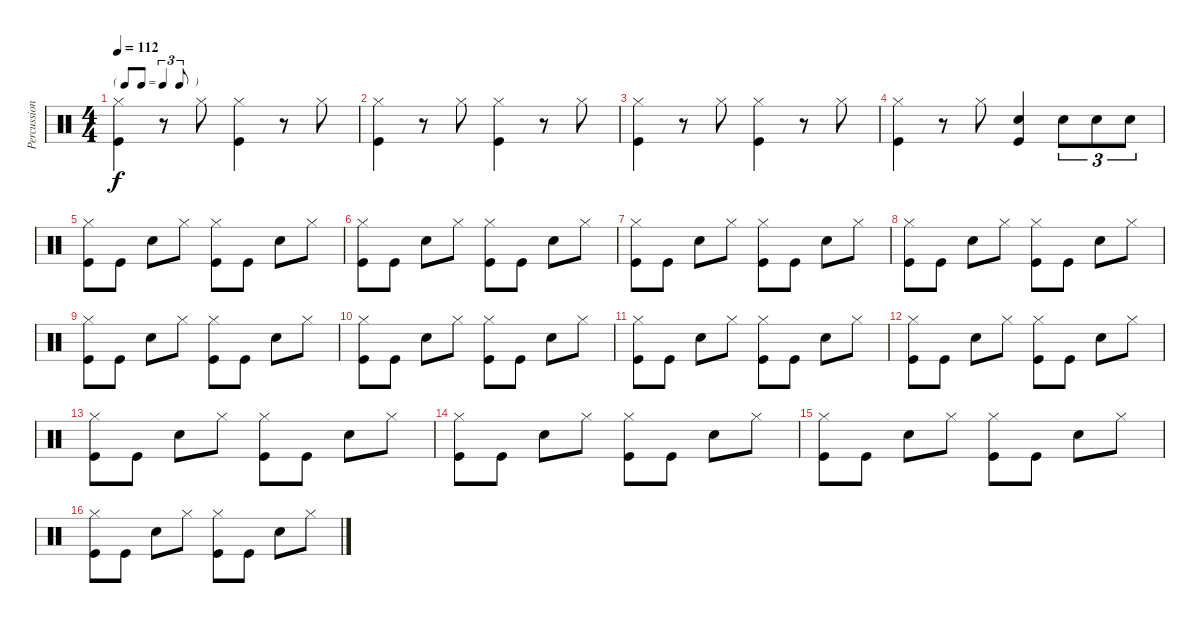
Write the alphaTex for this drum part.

\track ("Percussion" "Percussion") {instrument percussion}
\staff {score}
\articulation defaults
\ts (4 4)
\tf triplet8th
\tempo 112
\clef neutral
\ks c
("Hi-Hat (closed)" "Kick (hit)").4{dy f} r.8 "Hi-Hat (closed)".8 ("Hi-Hat (closed)" "Kick (hit)").4 r.8 "Hi-Hat (closed)".8 |
("Hi-Hat (closed)" "Kick (hit)").4 r.8 "Hi-Hat (closed)".8 ("Hi-Hat (closed)" "Kick (hit)").4 r.8 "Hi-Hat (closed)".8 |
("Hi-Hat (closed)" "Kick (hit)").4 r.8 "Hi-Hat (closed)".8 ("Hi-Hat (closed)" "Kick (hit)").4 r.8 "Hi-Hat (closed)".8 |
("Hi-Hat (closed)" "Kick (hit)").4 r.8 "Hi-Hat (closed)".8 ("Snare (hit) 2" "Kick (hit)").4 "Snare (hit) 2".8{tu (3 2)} "Snare (hit) 2".8{tu (3 2)} "Snare (hit) 2".8{tu (3 2)} |
("Hi-Hat (closed)" "Kick (hit)").8 "Kick (hit)".8 "Snare (hit) 2".8 "Hi-Hat (closed)".8 ("Hi-Hat (closed)" "Kick (hit)").8 "Kick (hit)".8 "Snare (hit) 2".8 "Hi-Hat (closed)".8 |
("Hi-Hat (closed)" "Kick (hit)").8 "Kick (hit)".8 "Snare (hit) 2".8 "Hi-Hat (closed)".8 ("Hi-Hat (closed)" "Kick (hit)").8 "Kick (hit)".8 "Snare (hit) 2".8 "Hi-Hat (closed)".8 |
("Hi-Hat (closed)" "Kick (hit)").8 "Kick (hit)".8 "Snare (hit) 2".8 "Hi-Hat (closed)".8 ("Hi-Hat (closed)" "Kick (hit)").8 "Kick (hit)".8 "Snare (hit) 2".8 "Hi-Hat (closed)".8 |
("Hi-Hat (closed)" "Kick (hit)").8 "Kick (hit)".8 "Snare (hit) 2".8 "Hi-Hat (closed)".8 ("Hi-Hat (closed)" "Kick (hit)").8 "Kick (hit)".8 "Snare (hit) 2".8 "Hi-Hat (closed)".8 |
("Hi-Hat (closed)" "Kick (hit)").8 "Kick (hit)".8 "Snare (hit) 2".8 "Hi-Hat (closed)".8 ("Hi-Hat (closed)" "Kick (hit)").8 "Kick (hit)".8 "Snare (hit) 2".8 "Hi-Hat (closed)".8 |
("Hi-Hat (closed)" "Kick (hit)").8 "Kick (hit)".8 "Snare (hit) 2".8 "Hi-Hat (closed)".8 ("Hi-Hat (closed)" "Kick (hit)").8 "Kick (hit)".8 "Snare (hit) 2".8 "Hi-Hat (closed)".8 |
("Hi-Hat (closed)" "Kick (hit)").8 "Kick (hit)".8 "Snare (hit) 2".8 "Hi-Hat (closed)".8 ("Hi-Hat (closed)" "Kick (hit)").8 "Kick (hit)".8 "Snare (hit) 2".8 "Hi-Hat (closed)".8 |
("Hi-Hat (closed)" "Kick (hit)").8 "Kick (hit)".8 "Snare (hit) 2".8 "Hi-Hat (closed)".8 ("Hi-Hat (closed)" "Kick (hit)").8 "Kick (hit)".8 "Snare (hit) 2".8 "Hi-Hat (closed)".8 |
("Hi-Hat (closed)" "Kick (hit)").8 "Kick (hit)".8 "Snare (hit) 2".8 "Hi-Hat (closed)".8 ("Hi-Hat (closed)" "Kick (hit)").8 "Kick (hit)".8 "Snare (hit) 2".8 "Hi-Hat (closed)".8 |
("Hi-Hat (closed)" "Kick (hit)").8 "Kick (hit)".8 "Snare (hit) 2".8 "Hi-Hat (closed)".8 ("Hi-Hat (closed)" "Kick (hit)").8 "Kick (hit)".8 "Snare (hit) 2".8 "Hi-Hat (closed)".8 |
("Hi-Hat (closed)" "Kick (hit)").8 "Kick (hit)".8 "Snare (hit) 2".8 "Hi-Hat (closed)".8 ("Hi-Hat (closed)" "Kick (hit)").8 "Kick (hit)".8 "Snare (hit) 2".8 "Hi-Hat (closed)".8 |
("Hi-Hat (closed)" "Kick (hit)").8 "Kick (hit)".8 "Snare (hit) 2".8 "Hi-Hat (closed)".8 ("Hi-Hat (closed)" "Kick (hit)").8 "Kick (hit)".8 "Snare (hit) 2".8 "Hi-Hat (closed)".8
